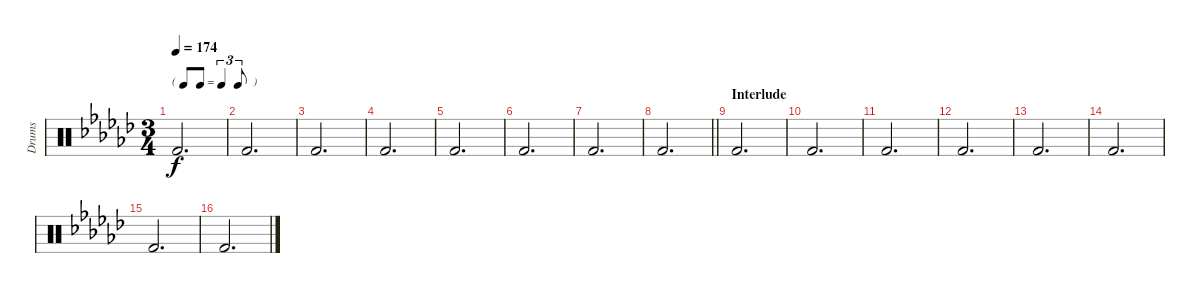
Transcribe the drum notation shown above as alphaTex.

\track ("Drums" "Drums") {instrument percussion}
\staff {score}
\articulation defaults
\ts (3 4)
\tf triplet8th
\tempo 174
\clef neutral
\ks ebminor "Kick (hit) 2".2{d dy f}
|
"Kick (hit) 2".2{d} |
"Kick (hit) 2".2{d} |
"Kick (hit) 2".2{d} |
"Kick (hit) 2".2{d} |
"Kick (hit) 2".2{d} |
"Kick (hit) 2".2{d} |
\barLineRight lightlight "Kick (hit) 2".2{d}
|
\section ("" "Interlude")
"Kick (hit) 2".2{d} |
"Kick (hit) 2".2{d} |
"Kick (hit) 2".2{d} |
"Kick (hit) 2".2{d} |
"Kick (hit) 2".2{d} |
"Kick (hit) 2".2{d} |
"Kick (hit) 2".2{d} |
"Kick (hit) 2".2{d}
